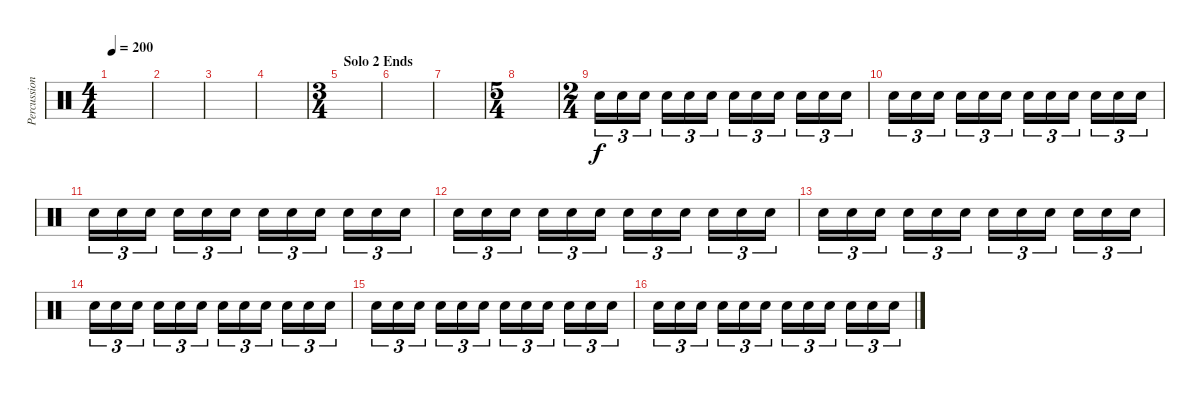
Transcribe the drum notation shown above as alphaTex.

\track ("Percussion" "Percussion") {instrument percussion}
\staff {score}
\articulation defaults
\ts (4 4)
\tempo 200
\clef neutral
\ks c
|
|
|
|
\ts (3 4)
\section ("" "Solo 2 Ends")
|
|
|
\ts (5 4)
|
\ts (2 4)
"Snare (hit) 2".16{tu (3 2)} "Snare (hit) 2".16{tu (3 2)} "Snare (hit) 2".16{tu (3 2)} "Snare (hit) 2".16{tu (3 2)} "Snare (hit) 2".16{tu (3 2)} "Snare (hit) 2".16{tu (3 2)} "Snare (hit) 2".16{tu (3 2)} "Snare (hit) 2".16{tu (3 2)} "Snare (hit) 2".16{tu (3 2)} "Snare (hit) 2".16{tu (3 2)} "Snare (hit) 2".16{tu (3 2)} "Snare (hit) 2".16{tu (3 2)} |
"Snare (hit) 2".16{tu (3 2)} "Snare (hit) 2".16{tu (3 2)} "Snare (hit) 2".16{tu (3 2)} "Snare (hit) 2".16{tu (3 2)} "Snare (hit) 2".16{tu (3 2)} "Snare (hit) 2".16{tu (3 2)} "Snare (hit) 2".16{tu (3 2)} "Snare (hit) 2".16{tu (3 2)} "Snare (hit) 2".16{tu (3 2)} "Snare (hit) 2".16{tu (3 2)} "Snare (hit) 2".16{tu (3 2)} "Snare (hit) 2".16{tu (3 2)} |
"Snare (hit) 2".16{tu (3 2)} "Snare (hit) 2".16{tu (3 2)} "Snare (hit) 2".16{tu (3 2)} "Snare (hit) 2".16{tu (3 2)} "Snare (hit) 2".16{tu (3 2)} "Snare (hit) 2".16{tu (3 2)} "Snare (hit) 2".16{tu (3 2)} "Snare (hit) 2".16{tu (3 2)} "Snare (hit) 2".16{tu (3 2)} "Snare (hit) 2".16{tu (3 2)} "Snare (hit) 2".16{tu (3 2)} "Snare (hit) 2".16{tu (3 2)} |
"Snare (hit) 2".16{tu (3 2)} "Snare (hit) 2".16{tu (3 2)} "Snare (hit) 2".16{tu (3 2)} "Snare (hit) 2".16{tu (3 2)} "Snare (hit) 2".16{tu (3 2)} "Snare (hit) 2".16{tu (3 2)} "Snare (hit) 2".16{tu (3 2)} "Snare (hit) 2".16{tu (3 2)} "Snare (hit) 2".16{tu (3 2)} "Snare (hit) 2".16{tu (3 2)} "Snare (hit) 2".16{tu (3 2)} "Snare (hit) 2".16{tu (3 2)} |
"Snare (hit) 2".16{tu (3 2)} "Snare (hit) 2".16{tu (3 2)} "Snare (hit) 2".16{tu (3 2)} "Snare (hit) 2".16{tu (3 2)} "Snare (hit) 2".16{tu (3 2)} "Snare (hit) 2".16{tu (3 2)} "Snare (hit) 2".16{tu (3 2)} "Snare (hit) 2".16{tu (3 2)} "Snare (hit) 2".16{tu (3 2)} "Snare (hit) 2".16{tu (3 2)} "Snare (hit) 2".16{tu (3 2)} "Snare (hit) 2".16{tu (3 2)} |
"Snare (hit) 2".16{tu (3 2)} "Snare (hit) 2".16{tu (3 2)} "Snare (hit) 2".16{tu (3 2)} "Snare (hit) 2".16{tu (3 2)} "Snare (hit) 2".16{tu (3 2)} "Snare (hit) 2".16{tu (3 2)} "Snare (hit) 2".16{tu (3 2)} "Snare (hit) 2".16{tu (3 2)} "Snare (hit) 2".16{tu (3 2)} "Snare (hit) 2".16{tu (3 2)} "Snare (hit) 2".16{tu (3 2)} "Snare (hit) 2".16{tu (3 2)} |
"Snare (hit) 2".16{tu (3 2)} "Snare (hit) 2".16{tu (3 2)} "Snare (hit) 2".16{tu (3 2)} "Snare (hit) 2".16{tu (3 2)} "Snare (hit) 2".16{tu (3 2)} "Snare (hit) 2".16{tu (3 2)} "Snare (hit) 2".16{tu (3 2)} "Snare (hit) 2".16{tu (3 2)} "Snare (hit) 2".16{tu (3 2)} "Snare (hit) 2".16{tu (3 2)} "Snare (hit) 2".16{tu (3 2)} "Snare (hit) 2".16{tu (3 2)} |
"Snare (hit) 2".16{tu (3 2)} "Snare (hit) 2".16{tu (3 2)} "Snare (hit) 2".16{tu (3 2)} "Snare (hit) 2".16{tu (3 2)} "Snare (hit) 2".16{tu (3 2)} "Snare (hit) 2".16{tu (3 2)} "Snare (hit) 2".16{tu (3 2)} "Snare (hit) 2".16{tu (3 2)} "Snare (hit) 2".16{tu (3 2)} "Snare (hit) 2".16{tu (3 2)} "Snare (hit) 2".16{tu (3 2)} "Snare (hit) 2".16{tu (3 2)}
